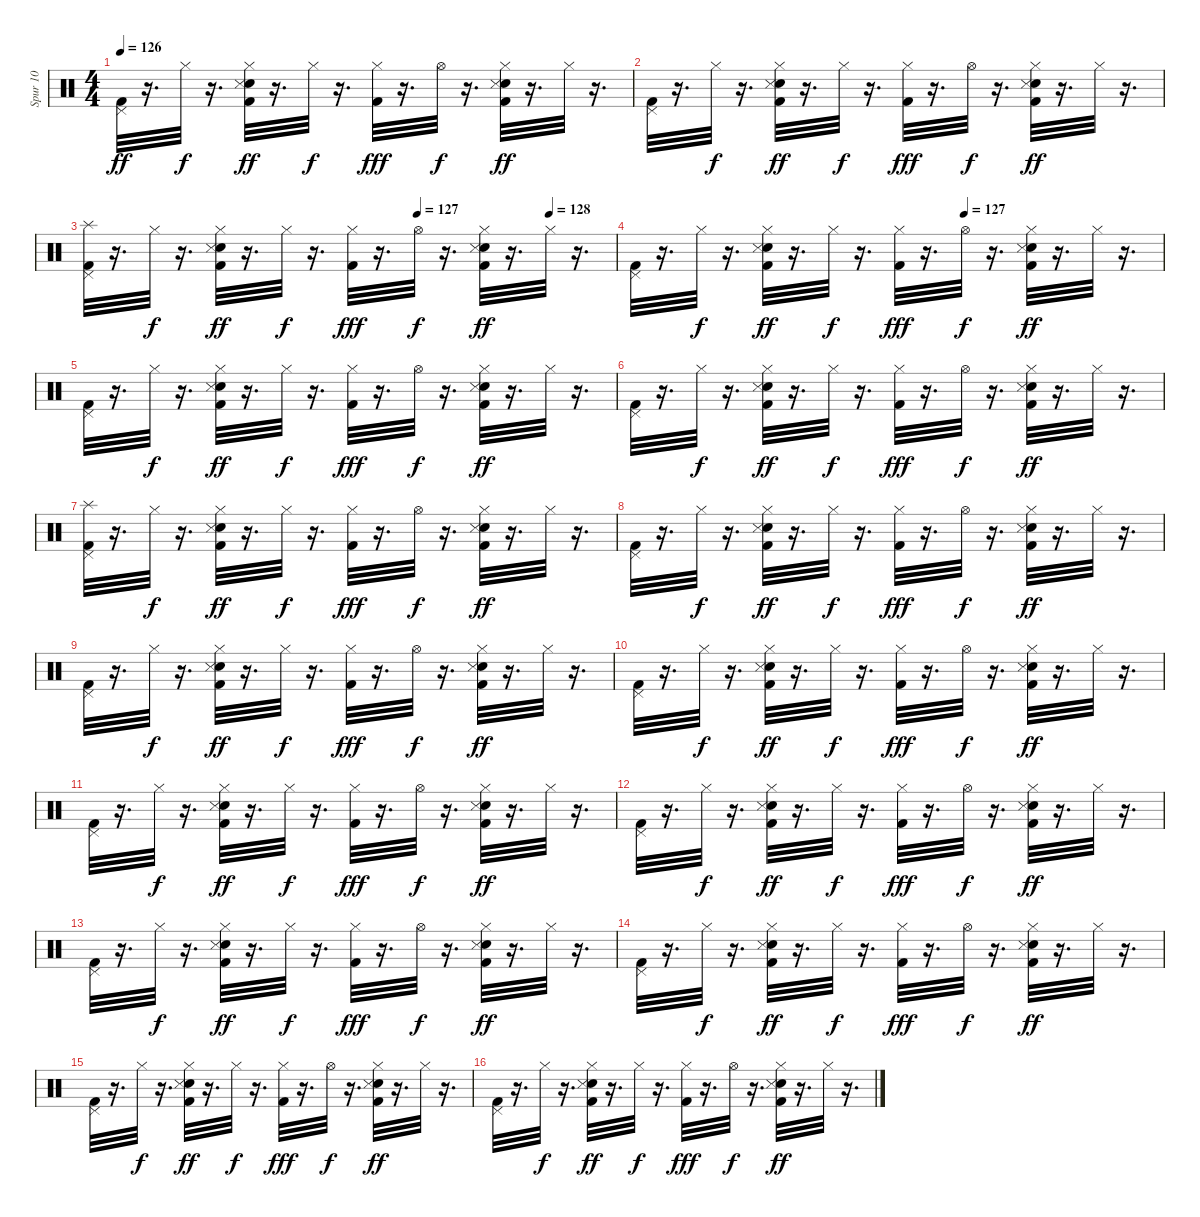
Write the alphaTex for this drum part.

\track ("Spur 10" "Spur 10") {instrument percussion}
\staff {score}
\articulation defaults
\ts (4 4)
\tempo 126
\clef neutral
\ks c
("Kick (hit) 2" "Pedal Hi-Hat (hit)").32{dy ff} r.16{d} "Hi-Hat (closed)".32{dy f} r.16{d} ("Snare (hit) 2" "Kick (hit) 2" "Hi-Hat (closed)" "Snare (side stick) 3").32{dy ff} r.16{d} "Hi-Hat (closed)".32{dy f} r.16{d} ("Kick (hit) 2" "Hi-Hat (closed)").32{dy fff} r.16{d} "Hi-Hat (open)".32{dy f} r.16{d} ("Snare (hit) 2" "Kick (hit) 2" "Hi-Hat (closed)" "Snare (side stick) 3").32{dy ff} r.16{d} "Hi-Hat (closed)".32 r.16{d} |
("Kick (hit) 2" "Pedal Hi-Hat (hit)").32 r.16{d} "Hi-Hat (closed)".32{dy f} r.16{d} ("Snare (hit) 2" "Kick (hit) 2" "Hi-Hat (closed)" "Snare (side stick) 3").32{dy ff} r.16{d} "Hi-Hat (closed)".32{dy f} r.16{d} ("Kick (hit) 2" "Hi-Hat (closed)").32{dy fff} r.16{d} "Hi-Hat (open)".32{dy f} r.16{d} ("Snare (hit) 2" "Kick (hit) 2" "Hi-Hat (closed)" "Snare (side stick) 3").32{dy ff} r.16{d} "Hi-Hat (closed)".32 r.16{d} |
\tempo (127 0.625)
\tempo (128 0.875)
("Splash (hit)" "Kick (hit) 2" "Pedal Hi-Hat (hit)").32 r.16{d} "Hi-Hat (closed)".32{dy f} r.16{d} ("Snare (hit) 2" "Kick (hit) 2" "Hi-Hat (closed)" "Snare (side stick) 3").32{dy ff} r.16{d} "Hi-Hat (closed)".32{dy f} r.16{d} ("Kick (hit) 2" "Hi-Hat (closed)").32{dy fff} r.16{d} "Hi-Hat (open)".32{dy f} r.16{d} ("Snare (hit) 2" "Kick (hit) 2" "Hi-Hat (closed)" "Snare (side stick) 3").32{dy ff} r.16{d} "Hi-Hat (closed)".32 r.16{d} |
\tempo (127 0.625)
("Kick (hit) 2" "Pedal Hi-Hat (hit)").32 r.16{d} "Hi-Hat (closed)".32{dy f} r.16{d} ("Snare (hit) 2" "Kick (hit) 2" "Hi-Hat (closed)" "Snare (side stick) 3").32{dy ff} r.16{d} "Hi-Hat (closed)".32{dy f} r.16{d} ("Kick (hit) 2" "Hi-Hat (closed)").32{dy fff} r.16{d} "Hi-Hat (open)".32{dy f} r.16{d} ("Snare (hit) 2" "Kick (hit) 2" "Hi-Hat (closed)" "Snare (side stick) 3").32{dy ff} r.16{d} "Hi-Hat (closed)".32 r.16{d} |
("Kick (hit) 2" "Pedal Hi-Hat (hit)").32 r.16{d} "Hi-Hat (closed)".32{dy f} r.16{d} ("Snare (hit) 2" "Kick (hit) 2" "Hi-Hat (closed)" "Snare (side stick) 3").32{dy ff} r.16{d} "Hi-Hat (closed)".32{dy f} r.16{d} ("Kick (hit) 2" "Hi-Hat (closed)").32{dy fff} r.16{d} "Hi-Hat (open)".32{dy f} r.16{d} ("Snare (hit) 2" "Kick (hit) 2" "Hi-Hat (closed)" "Snare (side stick) 3").32{dy ff} r.16{d} "Hi-Hat (closed)".32 r.16{d} |
("Kick (hit) 2" "Pedal Hi-Hat (hit)").32 r.16{d} "Hi-Hat (closed)".32{dy f} r.16{d} ("Snare (hit) 2" "Kick (hit) 2" "Hi-Hat (closed)" "Snare (side stick) 3").32{dy ff} r.16{d} "Hi-Hat (closed)".32{dy f} r.16{d} ("Kick (hit) 2" "Hi-Hat (closed)").32{dy fff} r.16{d} "Hi-Hat (open)".32{dy f} r.16{d} ("Snare (hit) 2" "Kick (hit) 2" "Hi-Hat (closed)" "Snare (side stick) 3").32{dy ff} r.16{d} "Hi-Hat (closed)".32 r.16{d} |
("Splash (hit)" "Kick (hit) 2" "Pedal Hi-Hat (hit)").32 r.16{d} "Hi-Hat (closed)".32{dy f} r.16{d} ("Snare (hit) 2" "Kick (hit) 2" "Hi-Hat (closed)" "Snare (side stick) 3").32{dy ff} r.16{d} "Hi-Hat (closed)".32{dy f} r.16{d} ("Kick (hit) 2" "Hi-Hat (closed)").32{dy fff} r.16{d} "Hi-Hat (open)".32{dy f} r.16{d} ("Snare (hit) 2" "Kick (hit) 2" "Hi-Hat (closed)" "Snare (side stick) 3").32{dy ff} r.16{d} "Hi-Hat (closed)".32 r.16{d} |
("Kick (hit) 2" "Pedal Hi-Hat (hit)").32 r.16{d} "Hi-Hat (closed)".32{dy f} r.16{d} ("Snare (hit) 2" "Kick (hit) 2" "Hi-Hat (closed)" "Snare (side stick) 3").32{dy ff} r.16{d} "Hi-Hat (closed)".32{dy f} r.16{d} ("Kick (hit) 2" "Hi-Hat (closed)").32{dy fff} r.16{d} "Hi-Hat (open)".32{dy f} r.16{d} ("Snare (hit) 2" "Kick (hit) 2" "Hi-Hat (closed)" "Snare (side stick) 3").32{dy ff} r.16{d} "Hi-Hat (closed)".32 r.16{d} |
("Kick (hit) 2" "Pedal Hi-Hat (hit)").32 r.16{d} "Hi-Hat (closed)".32{dy f} r.16{d} ("Snare (hit) 2" "Kick (hit) 2" "Hi-Hat (closed)" "Snare (side stick) 3").32{dy ff} r.16{d} "Hi-Hat (closed)".32{dy f} r.16{d} ("Kick (hit) 2" "Hi-Hat (closed)").32{dy fff} r.16{d} "Hi-Hat (open)".32{dy f} r.16{d} ("Snare (hit) 2" "Kick (hit) 2" "Hi-Hat (closed)" "Snare (side stick) 3").32{dy ff} r.16{d} "Hi-Hat (closed)".32 r.16{d} |
("Kick (hit) 2" "Pedal Hi-Hat (hit)").32 r.16{d} "Hi-Hat (closed)".32{dy f} r.16{d} ("Snare (hit) 2" "Kick (hit) 2" "Hi-Hat (closed)" "Snare (side stick) 3").32{dy ff} r.16{d} "Hi-Hat (closed)".32{dy f} r.16{d} ("Kick (hit) 2" "Hi-Hat (closed)").32{dy fff} r.16{d} "Hi-Hat (open)".32{dy f} r.16{d} ("Snare (hit) 2" "Kick (hit) 2" "Hi-Hat (closed)" "Snare (side stick) 3").32{dy ff} r.16{d} "Hi-Hat (closed)".32 r.16{d} |
("Kick (hit) 2" "Pedal Hi-Hat (hit)").32 r.16{d} "Hi-Hat (closed)".32{dy f} r.16{d} ("Snare (hit) 2" "Kick (hit) 2" "Hi-Hat (closed)" "Snare (side stick) 3").32{dy ff} r.16{d} "Hi-Hat (closed)".32{dy f} r.16{d} ("Kick (hit) 2" "Hi-Hat (closed)").32{dy fff} r.16{d} "Hi-Hat (open)".32{dy f} r.16{d} ("Snare (hit) 2" "Kick (hit) 2" "Hi-Hat (closed)" "Snare (side stick) 3").32{dy ff} r.16{d} "Hi-Hat (closed)".32 r.16{d} |
("Kick (hit) 2" "Pedal Hi-Hat (hit)").32 r.16{d} "Hi-Hat (closed)".32{dy f} r.16{d} ("Snare (hit) 2" "Kick (hit) 2" "Hi-Hat (closed)" "Snare (side stick) 3").32{dy ff} r.16{d} "Hi-Hat (closed)".32{dy f} r.16{d} ("Kick (hit) 2" "Hi-Hat (closed)").32{dy fff} r.16{d} "Hi-Hat (open)".32{dy f} r.16{d} ("Snare (hit) 2" "Kick (hit) 2" "Hi-Hat (closed)" "Snare (side stick) 3").32{dy ff} r.16{d} "Hi-Hat (closed)".32 r.16{d} |
("Kick (hit) 2" "Pedal Hi-Hat (hit)").32 r.16{d} "Hi-Hat (closed)".32{dy f} r.16{d} ("Snare (hit) 2" "Kick (hit) 2" "Hi-Hat (closed)" "Snare (side stick) 3").32{dy ff} r.16{d} "Hi-Hat (closed)".32{dy f} r.16{d} ("Kick (hit) 2" "Hi-Hat (closed)").32{dy fff} r.16{d} "Hi-Hat (open)".32{dy f} r.16{d} ("Snare (hit) 2" "Kick (hit) 2" "Hi-Hat (closed)" "Snare (side stick) 3").32{dy ff} r.16{d} "Hi-Hat (closed)".32 r.16{d} |
("Kick (hit) 2" "Pedal Hi-Hat (hit)").32 r.16{d} "Hi-Hat (closed)".32{dy f} r.16{d} ("Snare (hit) 2" "Kick (hit) 2" "Hi-Hat (closed)" "Snare (side stick) 3").32{dy ff} r.16{d} "Hi-Hat (closed)".32{dy f} r.16{d} ("Kick (hit) 2" "Hi-Hat (closed)").32{dy fff} r.16{d} "Hi-Hat (open)".32{dy f} r.16{d} ("Snare (hit) 2" "Kick (hit) 2" "Hi-Hat (closed)" "Snare (side stick) 3").32{dy ff} r.16{d} "Hi-Hat (closed)".32 r.16{d} |
("Kick (hit) 2" "Pedal Hi-Hat (hit)").32 r.16{d} "Hi-Hat (closed)".32{dy f} r.16{d} ("Snare (hit) 2" "Kick (hit) 2" "Hi-Hat (closed)" "Snare (side stick) 3").32{dy ff} r.16{d} "Hi-Hat (closed)".32{dy f} r.16{d} ("Kick (hit) 2" "Hi-Hat (closed)").32{dy fff} r.16{d} "Hi-Hat (open)".32{dy f} r.16{d} ("Snare (hit) 2" "Kick (hit) 2" "Hi-Hat (closed)" "Snare (side stick) 3").32{dy ff} r.16{d} "Hi-Hat (closed)".32 r.16{d} |
("Kick (hit) 2" "Pedal Hi-Hat (hit)").32 r.16{d} "Hi-Hat (closed)".32{dy f} r.16{d} ("Snare (hit) 2" "Kick (hit) 2" "Hi-Hat (closed)" "Snare (side stick) 3").32{dy ff} r.16{d} "Hi-Hat (closed)".32{dy f} r.16{d} ("Kick (hit) 2" "Hi-Hat (closed)").32{dy fff} r.16{d} "Hi-Hat (open)".32{dy f} r.16{d} ("Snare (hit) 2" "Kick (hit) 2" "Hi-Hat (closed)" "Snare (side stick) 3").32{dy ff} r.16{d} "Hi-Hat (closed)".32 r.16{d}
